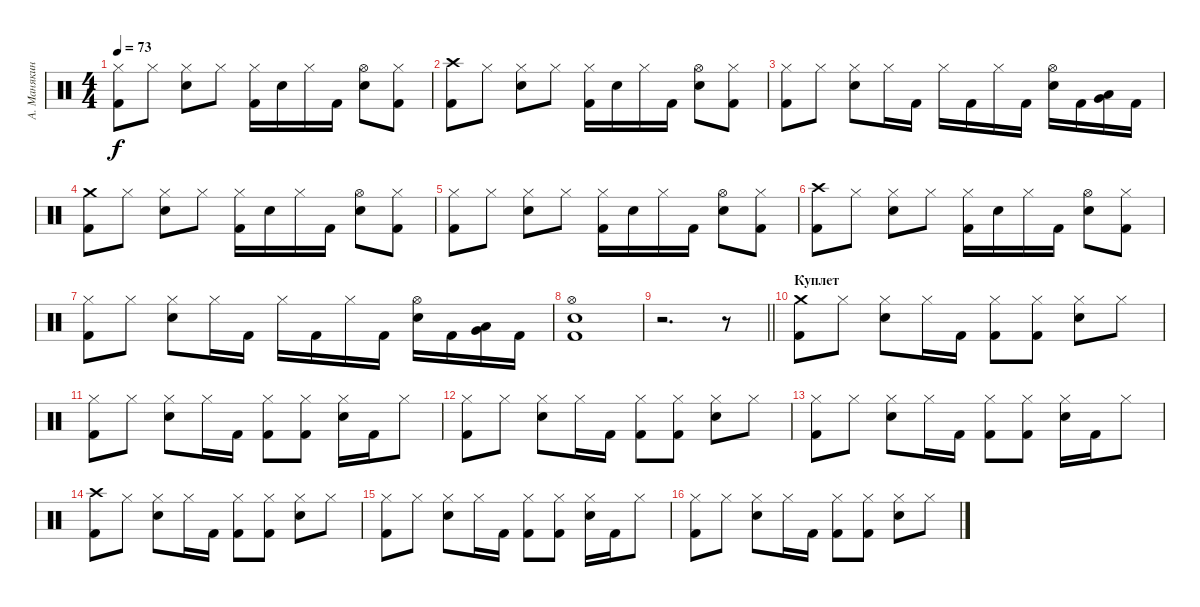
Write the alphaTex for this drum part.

\track ("А. Манякин" "А. Манякин") {instrument percussion}
\staff {score}
\articulation defaults
\ts (4 4)
\tempo 73
\clef neutral
\ks c
("Kick (hit) 2" "Hi-Hat (closed)").8{dy f} "Hi-Hat (closed)".8 ("Snare (hit) 2" "Hi-Hat (closed)").8 "Hi-Hat (closed)".8 ("Kick (hit) 2" "Hi-Hat (closed)").16 "Snare (hit) 2".16 "Hi-Hat (closed)".16 "Kick (hit) 2".16 ("Snare (hit) 2" "Hi-Hat (open)").8 ("Kick (hit) 2" "Hi-Hat (closed)").8 |
("Kick (hit) 2" "Crash high (hit)").8 "Hi-Hat (closed)".8 ("Snare (hit) 2" "Hi-Hat (closed)").8 "Hi-Hat (closed)".8 ("Kick (hit) 2" "Hi-Hat (closed)").16 "Snare (hit) 2".16 "Hi-Hat (closed)".16 "Kick (hit) 2".16 ("Snare (hit) 2" "Hi-Hat (open)").8 ("Kick (hit) 2" "Hi-Hat (closed)").8 |
("Kick (hit) 2" "Hi-Hat (closed)").8 "Hi-Hat (closed)".8 ("Snare (hit) 2" "Hi-Hat (closed)").8 "Hi-Hat (closed)".16 "Kick (hit) 2".16 "Hi-Hat (closed)".16 "Kick (hit) 2".16 "Hi-Hat (closed)".16 "Kick (hit) 2".16 ("Hi-Hat (open)" "Snare (hit) 2").16 "Kick (hit) 2".16 ("Very Low Tom (hit)" "Low Tom (hit)").16 "Kick (hit) 2".16 |
("Kick (hit) 2" "Crash medium (hit)").8 "Hi-Hat (closed)".8 ("Snare (hit) 2" "Hi-Hat (closed)").8 "Hi-Hat (closed)".8 ("Kick (hit) 2" "Hi-Hat (closed)").16 "Snare (hit) 2".16 "Hi-Hat (closed)".16 "Kick (hit) 2".16 ("Snare (hit) 2" "Hi-Hat (open)").8 ("Kick (hit) 2" "Hi-Hat (closed)").8 |
("Kick (hit) 2" "Hi-Hat (closed)").8 "Hi-Hat (closed)".8 ("Snare (hit) 2" "Hi-Hat (closed)").8 "Hi-Hat (closed)".8 ("Kick (hit) 2" "Hi-Hat (closed)").16 "Snare (hit) 2".16 "Hi-Hat (closed)".16 "Kick (hit) 2".16 ("Snare (hit) 2" "Hi-Hat (open)").8 ("Kick (hit) 2" "Hi-Hat (closed)").8 |
("Kick (hit) 2" "Crash high (hit)").8 "Hi-Hat (closed)".8 ("Snare (hit) 2" "Hi-Hat (closed)").8 "Hi-Hat (closed)".8 ("Kick (hit) 2" "Hi-Hat (closed)").16 "Snare (hit) 2".16 "Hi-Hat (closed)".16 "Kick (hit) 2".16 ("Snare (hit) 2" "Hi-Hat (open)").8 ("Kick (hit) 2" "Hi-Hat (closed)").8 |
("Kick (hit) 2" "Hi-Hat (closed)").8 "Hi-Hat (closed)".8 ("Snare (hit) 2" "Hi-Hat (closed)").8 "Hi-Hat (closed)".16 "Kick (hit) 2".16 "Hi-Hat (closed)".16 "Kick (hit) 2".16 "Hi-Hat (closed)".16 "Kick (hit) 2".16 ("Hi-Hat (open)" "Snare (hit) 2").16 "Kick (hit) 2".16 ("Very Low Tom (hit)" "Low Tom (hit)").16 "Kick (hit) 2".16 |
("Kick (hit) 2" "Snare (hit) 2" "Hi-Hat (open)").1 |
\barLineRight lightlight
r.2{d} r.8 |
\section ("" "Куплет")
("Kick (hit) 2" "Crash medium (hit)").8 "Hi-Hat (closed)".8 ("Snare (hit) 2" "Hi-Hat (closed)").8 "Hi-Hat (closed)".16 "Kick (hit) 2".16 ("Kick (hit) 2" "Hi-Hat (closed)").8 ("Kick (hit) 2" "Hi-Hat (closed)").8 ("Snare (hit) 2" "Hi-Hat (closed)").8 "Hi-Hat (closed)".8 |
("Hi-Hat (closed)" "Kick (hit) 2").8 "Hi-Hat (closed)".8 ("Hi-Hat (closed)" "Snare (hit) 2").8 "Hi-Hat (closed)".16 "Kick (hit) 2".16 ("Hi-Hat (closed)" "Kick (hit) 2").8 ("Hi-Hat (closed)" "Kick (hit) 2").8 ("Hi-Hat (closed)" "Snare (hit) 2").16 "Kick (hit) 2".16 "Hi-Hat (closed)".8 |
("Hi-Hat (closed)" "Kick (hit) 2").8 "Hi-Hat (closed)".8 ("Snare (hit) 2" "Hi-Hat (closed)").8 "Hi-Hat (closed)".16 "Kick (hit) 2".16 ("Kick (hit) 2" "Hi-Hat (closed)").8 ("Kick (hit) 2" "Hi-Hat (closed)").8 ("Snare (hit) 2" "Hi-Hat (closed)").8 "Hi-Hat (closed)".8 |
("Hi-Hat (closed)" "Kick (hit) 2").8 "Hi-Hat (closed)".8 ("Hi-Hat (closed)" "Snare (hit) 2").8 "Hi-Hat (closed)".16 "Kick (hit) 2".16 ("Hi-Hat (closed)" "Kick (hit) 2").8 ("Hi-Hat (closed)" "Kick (hit) 2").8 ("Hi-Hat (closed)" "Snare (hit) 2").16 "Kick (hit) 2".16 "Hi-Hat (closed)".8 |
("Kick (hit) 2" "Crash high (hit)").8 "Hi-Hat (closed)".8 ("Snare (hit) 2" "Hi-Hat (closed)").8 "Hi-Hat (closed)".16 "Kick (hit) 2".16 ("Kick (hit) 2" "Hi-Hat (closed)").8 ("Kick (hit) 2" "Hi-Hat (closed)").8 ("Snare (hit) 2" "Hi-Hat (closed)").8 "Hi-Hat (closed)".8 |
("Hi-Hat (closed)" "Kick (hit) 2").8 "Hi-Hat (closed)".8 ("Hi-Hat (closed)" "Snare (hit) 2").8 "Hi-Hat (closed)".16 "Kick (hit) 2".16 ("Hi-Hat (closed)" "Kick (hit) 2").8 ("Hi-Hat (closed)" "Kick (hit) 2").8 ("Hi-Hat (closed)" "Snare (hit) 2").16 "Kick (hit) 2".16 "Hi-Hat (closed)".8 |
("Hi-Hat (closed)" "Kick (hit) 2").8 "Hi-Hat (closed)".8 ("Snare (hit) 2" "Hi-Hat (closed)").8 "Hi-Hat (closed)".16 "Kick (hit) 2".16 ("Kick (hit) 2" "Hi-Hat (closed)").8 ("Kick (hit) 2" "Hi-Hat (closed)").8 ("Snare (hit) 2" "Hi-Hat (closed)").8 "Hi-Hat (closed)".8
